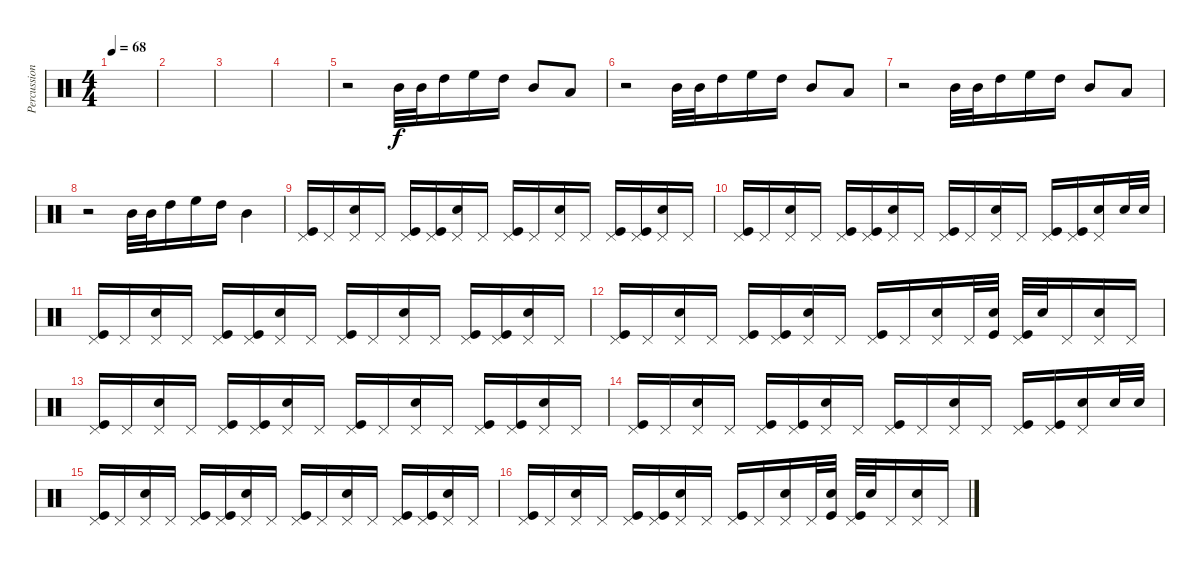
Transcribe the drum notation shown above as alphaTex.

\track ("Percussion" "Percussion") {instrument percussion}
\staff {score}
\articulation defaults
\ts (4 4)
\tempo 68
\clef neutral
\ks c
|
|
|
|
r.2 "Mid Tom (hit)".32 "Mid Tom (hit)".32 "High Tom (hit)".16 "High Floor Tom (hit)".16 "High Tom (hit)".16 "Mid Tom (hit)".8 "Low Tom (hit)".8 |
r.2 "Mid Tom (hit)".32 "Mid Tom (hit)".32 "High Tom (hit)".16 "High Floor Tom (hit)".16 "High Tom (hit)".16 "Mid Tom (hit)".8 "Low Tom (hit)".8 |
r.2 "Mid Tom (hit)".32 "Mid Tom (hit)".32 "High Tom (hit)".16 "High Floor Tom (hit)".16 "High Tom (hit)".16 "Mid Tom (hit)".8 "Low Tom (hit)".8 |
r.2 "Mid Tom (hit)".32 "Mid Tom (hit)".32 "High Tom (hit)".16 "High Floor Tom (hit)".16 "High Tom (hit)".16 "Mid Tom (hit)".4 |
("Pedal Hi-Hat (hit)" "Kick (hit)").16 "Pedal Hi-Hat (hit)".16 ("Pedal Hi-Hat (hit)" "Electric Snare (hit)").16 "Pedal Hi-Hat (hit)".16 ("Pedal Hi-Hat (hit)" "Kick (hit)").16 ("Pedal Hi-Hat (hit)" "Kick (hit)").16 ("Pedal Hi-Hat (hit)" "Electric Snare (hit)").16 "Pedal Hi-Hat (hit)".16 ("Pedal Hi-Hat (hit)" "Kick (hit)").16 "Pedal Hi-Hat (hit)".16 ("Pedal Hi-Hat (hit)" "Electric Snare (hit)").16 "Pedal Hi-Hat (hit)".16 ("Pedal Hi-Hat (hit)" "Kick (hit)").16 ("Pedal Hi-Hat (hit)" "Kick (hit)").16 ("Pedal Hi-Hat (hit)" "Electric Snare (hit)").16 "Pedal Hi-Hat (hit)".16 |
("Pedal Hi-Hat (hit)" "Kick (hit)").16 "Pedal Hi-Hat (hit)".16 ("Pedal Hi-Hat (hit)" "Electric Snare (hit)").16 "Pedal Hi-Hat (hit)".16 ("Pedal Hi-Hat (hit)" "Kick (hit)").16 ("Pedal Hi-Hat (hit)" "Kick (hit)").16 ("Pedal Hi-Hat (hit)" "Electric Snare (hit)").16 "Pedal Hi-Hat (hit)".16 ("Pedal Hi-Hat (hit)" "Kick (hit)").16 "Pedal Hi-Hat (hit)".16 ("Pedal Hi-Hat (hit)" "Electric Snare (hit)").16 "Pedal Hi-Hat (hit)".16 ("Pedal Hi-Hat (hit)" "Kick (hit)").16 ("Pedal Hi-Hat (hit)" "Kick (hit)").16 ("Pedal Hi-Hat (hit)" "Electric Snare (hit)").16 "Electric Snare (hit)".32 "Electric Snare (hit)".32 |
("Pedal Hi-Hat (hit)" "Kick (hit)").16 "Pedal Hi-Hat (hit)".16 ("Pedal Hi-Hat (hit)" "Electric Snare (hit)").16 "Pedal Hi-Hat (hit)".16 ("Pedal Hi-Hat (hit)" "Kick (hit)").16 ("Pedal Hi-Hat (hit)" "Kick (hit)").16 ("Pedal Hi-Hat (hit)" "Electric Snare (hit)").16 "Pedal Hi-Hat (hit)".16 ("Pedal Hi-Hat (hit)" "Kick (hit)").16 "Pedal Hi-Hat (hit)".16 ("Pedal Hi-Hat (hit)" "Electric Snare (hit)").16 "Pedal Hi-Hat (hit)".16 ("Pedal Hi-Hat (hit)" "Kick (hit)").16 ("Pedal Hi-Hat (hit)" "Kick (hit)").16 ("Pedal Hi-Hat (hit)" "Electric Snare (hit)").16 "Pedal Hi-Hat (hit)".16 |
("Pedal Hi-Hat (hit)" "Kick (hit)").16 "Pedal Hi-Hat (hit)".16 ("Pedal Hi-Hat (hit)" "Electric Snare (hit)").16 "Pedal Hi-Hat (hit)".16 ("Pedal Hi-Hat (hit)" "Kick (hit)").16 ("Pedal Hi-Hat (hit)" "Kick (hit)").16 ("Pedal Hi-Hat (hit)" "Electric Snare (hit)").16 "Pedal Hi-Hat (hit)".16 ("Pedal Hi-Hat (hit)" "Kick (hit)").16 "Pedal Hi-Hat (hit)".16 ("Pedal Hi-Hat (hit)" "Electric Snare (hit)").16 "Pedal Hi-Hat (hit)".32 ("Electric Snare (hit)" "Kick (hit)").32 ("Pedal Hi-Hat (hit)" "Kick (hit)").32 "Electric Snare (hit)".32 "Pedal Hi-Hat (hit)".16 ("Pedal Hi-Hat (hit)" "Electric Snare (hit)").16 "Pedal Hi-Hat (hit)".16 |
("Pedal Hi-Hat (hit)" "Kick (hit)").16 "Pedal Hi-Hat (hit)".16 ("Pedal Hi-Hat (hit)" "Electric Snare (hit)").16 "Pedal Hi-Hat (hit)".16 ("Pedal Hi-Hat (hit)" "Kick (hit)").16 ("Pedal Hi-Hat (hit)" "Kick (hit)").16 ("Pedal Hi-Hat (hit)" "Electric Snare (hit)").16 "Pedal Hi-Hat (hit)".16 ("Pedal Hi-Hat (hit)" "Kick (hit)").16 "Pedal Hi-Hat (hit)".16 ("Pedal Hi-Hat (hit)" "Electric Snare (hit)").16 "Pedal Hi-Hat (hit)".16 ("Pedal Hi-Hat (hit)" "Kick (hit)").16 ("Pedal Hi-Hat (hit)" "Kick (hit)").16 ("Pedal Hi-Hat (hit)" "Electric Snare (hit)").16 "Pedal Hi-Hat (hit)".16 |
("Pedal Hi-Hat (hit)" "Kick (hit)").16 "Pedal Hi-Hat (hit)".16 ("Pedal Hi-Hat (hit)" "Electric Snare (hit)").16 "Pedal Hi-Hat (hit)".16 ("Pedal Hi-Hat (hit)" "Kick (hit)").16 ("Pedal Hi-Hat (hit)" "Kick (hit)").16 ("Pedal Hi-Hat (hit)" "Electric Snare (hit)").16 "Pedal Hi-Hat (hit)".16 ("Pedal Hi-Hat (hit)" "Kick (hit)").16 "Pedal Hi-Hat (hit)".16 ("Pedal Hi-Hat (hit)" "Electric Snare (hit)").16 "Pedal Hi-Hat (hit)".16 ("Pedal Hi-Hat (hit)" "Kick (hit)").16 ("Pedal Hi-Hat (hit)" "Kick (hit)").16 ("Pedal Hi-Hat (hit)" "Electric Snare (hit)").16 "Electric Snare (hit)".32 "Electric Snare (hit)".32 |
("Pedal Hi-Hat (hit)" "Kick (hit)").16 "Pedal Hi-Hat (hit)".16 ("Pedal Hi-Hat (hit)" "Electric Snare (hit)").16 "Pedal Hi-Hat (hit)".16 ("Pedal Hi-Hat (hit)" "Kick (hit)").16 ("Pedal Hi-Hat (hit)" "Kick (hit)").16 ("Pedal Hi-Hat (hit)" "Electric Snare (hit)").16 "Pedal Hi-Hat (hit)".16 ("Pedal Hi-Hat (hit)" "Kick (hit)").16 "Pedal Hi-Hat (hit)".16 ("Pedal Hi-Hat (hit)" "Electric Snare (hit)").16 "Pedal Hi-Hat (hit)".16 ("Pedal Hi-Hat (hit)" "Kick (hit)").16 ("Pedal Hi-Hat (hit)" "Kick (hit)").16 ("Pedal Hi-Hat (hit)" "Electric Snare (hit)").16 "Pedal Hi-Hat (hit)".16 |
("Pedal Hi-Hat (hit)" "Kick (hit)").16 "Pedal Hi-Hat (hit)".16 ("Pedal Hi-Hat (hit)" "Electric Snare (hit)").16 "Pedal Hi-Hat (hit)".16 ("Pedal Hi-Hat (hit)" "Kick (hit)").16 ("Pedal Hi-Hat (hit)" "Kick (hit)").16 ("Pedal Hi-Hat (hit)" "Electric Snare (hit)").16 "Pedal Hi-Hat (hit)".16 ("Pedal Hi-Hat (hit)" "Kick (hit)").16 "Pedal Hi-Hat (hit)".16 ("Pedal Hi-Hat (hit)" "Electric Snare (hit)").16 "Pedal Hi-Hat (hit)".32 ("Electric Snare (hit)" "Kick (hit)").32 ("Pedal Hi-Hat (hit)" "Kick (hit)").32 "Electric Snare (hit)".32 "Pedal Hi-Hat (hit)".16 ("Pedal Hi-Hat (hit)" "Electric Snare (hit)").16 "Pedal Hi-Hat (hit)".16
